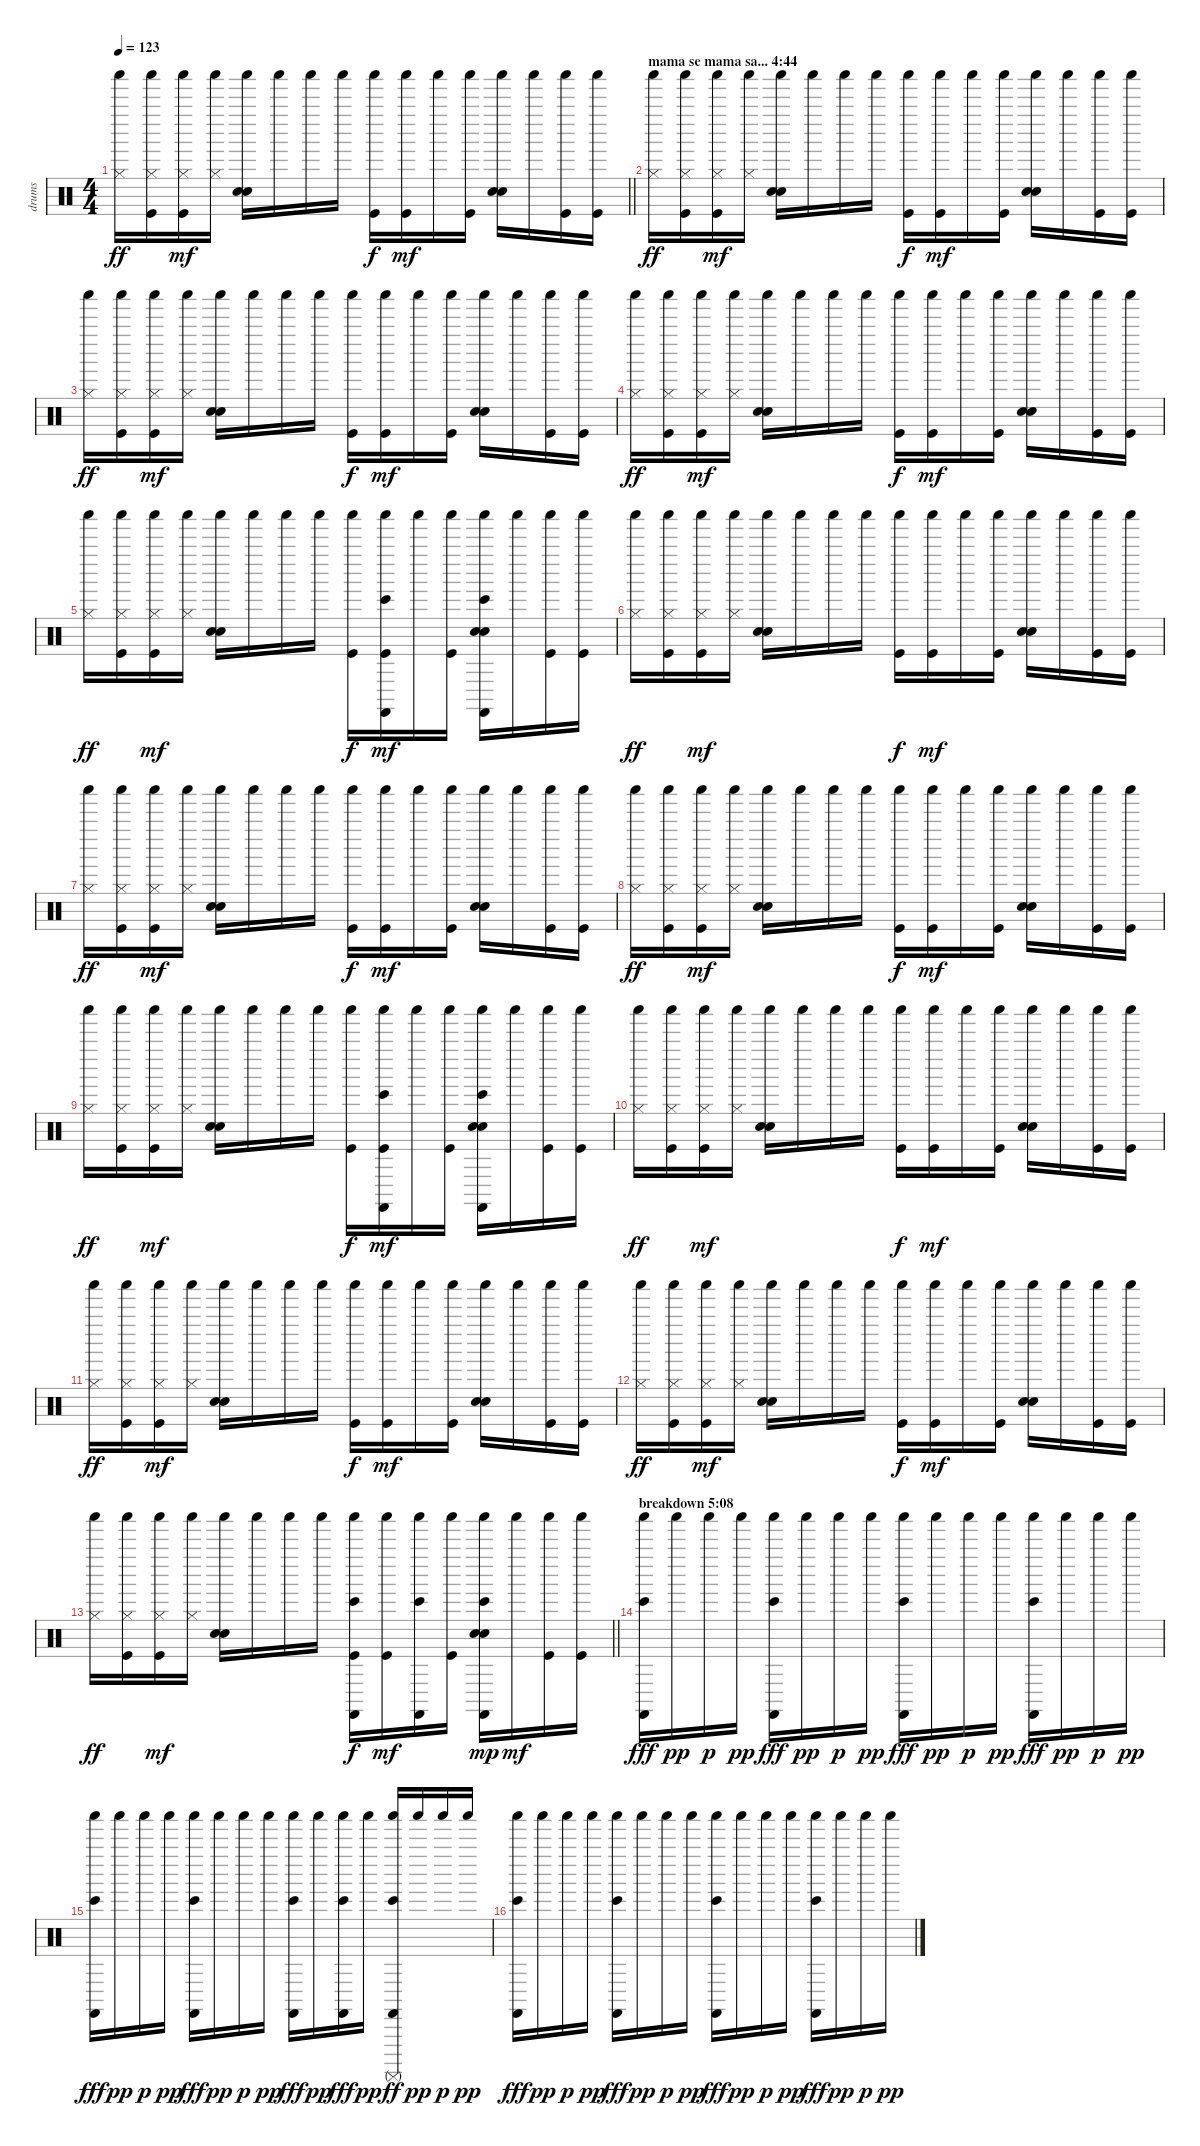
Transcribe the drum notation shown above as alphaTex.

\track ("drums" "drums") {instrument percussion}
\staff {score}
\articulation defaults
\ts (4 4)
\tempo 123
\clef neutral
\barLineRight lightlight
\ks c
("Shaker (hit)" "Hi-Hat (closed)").16{dy ff} ("Shaker (hit)" "Hi-Hat (closed)" "Kick (hit)").16 ("Shaker (hit)" "Hi-Hat (closed)" "Kick (hit)").16{dy mf} ("Shaker (hit)" "Hi-Hat (closed)").16 ("Shaker (hit)" "Electric Snare (hit)" "Hand Clap (hit)").16 "Shaker (hit)".16 "Shaker (hit)".16 "Shaker (hit)".16 ("Shaker (hit)" "Kick (hit)").16{dy f} ("Shaker (hit)" "Kick (hit)").16{dy mf} "Shaker (hit)".16 ("Shaker (hit)" "Kick (hit)").16 ("Shaker (hit)" "Electric Snare (hit)" "Hand Clap (hit)").16 "Shaker (hit)".16 ("Shaker (hit)" "Kick (hit)").16 ("Shaker (hit)" "Kick (hit)").16 |
\section ("" "mama se mama sa... 4:44")
("Shaker (hit)" "Hi-Hat (closed)").16{dy ff} ("Shaker (hit)" "Hi-Hat (closed)" "Kick (hit)").16 ("Shaker (hit)" "Hi-Hat (closed)" "Kick (hit)").16{dy mf} ("Shaker (hit)" "Hi-Hat (closed)").16 ("Shaker (hit)" "Electric Snare (hit)" "Hand Clap (hit)").16 "Shaker (hit)".16 "Shaker (hit)".16 "Shaker (hit)".16 ("Shaker (hit)" "Kick (hit)").16{dy f} ("Shaker (hit)" "Kick (hit)").16{dy mf} "Shaker (hit)".16 ("Shaker (hit)" "Kick (hit)").16 ("Shaker (hit)" "Electric Snare (hit)" "Hand Clap (hit)").16 "Shaker (hit)".16 ("Shaker (hit)" "Kick (hit)").16 ("Shaker (hit)" "Kick (hit)").16 |
("Shaker (hit)" "Hi-Hat (closed)").16{dy ff} ("Shaker (hit)" "Hi-Hat (closed)" "Kick (hit)").16 ("Shaker (hit)" "Hi-Hat (closed)" "Kick (hit)").16{dy mf} ("Shaker (hit)" "Hi-Hat (closed)").16 ("Shaker (hit)" "Electric Snare (hit)" "Hand Clap (hit)").16 "Shaker (hit)".16 "Shaker (hit)".16 "Shaker (hit)".16 ("Shaker (hit)" "Kick (hit)").16{dy f} ("Shaker (hit)" "Kick (hit)").16{dy mf} "Shaker (hit)".16 ("Shaker (hit)" "Kick (hit)").16 ("Shaker (hit)" "Electric Snare (hit)" "Hand Clap (hit)").16 "Shaker (hit)".16 ("Shaker (hit)" "Kick (hit)").16 ("Shaker (hit)" "Kick (hit)").16 |
("Shaker (hit)" "Hi-Hat (closed)").16{dy ff} ("Shaker (hit)" "Hi-Hat (closed)" "Kick (hit)").16 ("Shaker (hit)" "Hi-Hat (closed)" "Kick (hit)").16{dy mf} ("Shaker (hit)" "Hi-Hat (closed)").16 ("Shaker (hit)" "Electric Snare (hit)" "Hand Clap (hit)").16 "Shaker (hit)".16 "Shaker (hit)".16 "Shaker (hit)".16 ("Shaker (hit)" "Kick (hit)").16{dy f} ("Shaker (hit)" "Kick (hit)").16{dy mf} "Shaker (hit)".16 ("Shaker (hit)" "Kick (hit)").16 ("Shaker (hit)" "Electric Snare (hit)" "Hand Clap (hit)").16 "Shaker (hit)".16 ("Shaker (hit)" "Kick (hit)").16 ("Shaker (hit)" "Kick (hit)").16 |
("Shaker (hit)" "Hi-Hat (closed)").16{dy ff} ("Shaker (hit)" "Hi-Hat (closed)" "Kick (hit)").16 ("Shaker (hit)" "Hi-Hat (closed)" "Kick (hit)").16{dy mf} ("Shaker (hit)" "Hi-Hat (closed)").16 ("Shaker (hit)" "Electric Snare (hit)" "Hand Clap (hit)").16 "Shaker (hit)".16 "Shaker (hit)".16 "Shaker (hit)".16 ("Shaker (hit)" "Kick (hit)").16{dy f} ("Shaker (hit)" "Bongo High (hit)" "Castanets (hit)" "Kick (hit)").16{dy mf} "Shaker (hit)".16 ("Shaker (hit)" "Kick (hit)").16 ("Shaker (hit)" "Electric Snare (hit)" "Hand Clap (hit)" "Bongo High (hit)" "Castanets (hit)").16 "Shaker (hit)".16 ("Shaker (hit)" "Kick (hit)").16 ("Shaker (hit)" "Kick (hit)").16 |
("Shaker (hit)" "Hi-Hat (closed)").16{dy ff} ("Shaker (hit)" "Hi-Hat (closed)" "Kick (hit)").16 ("Shaker (hit)" "Hi-Hat (closed)" "Kick (hit)").16{dy mf} ("Shaker (hit)" "Hi-Hat (closed)").16 ("Shaker (hit)" "Electric Snare (hit)" "Hand Clap (hit)").16 "Shaker (hit)".16 "Shaker (hit)".16 "Shaker (hit)".16 ("Shaker (hit)" "Kick (hit)").16{dy f} ("Shaker (hit)" "Kick (hit)").16{dy mf} "Shaker (hit)".16 ("Shaker (hit)" "Kick (hit)").16 ("Shaker (hit)" "Electric Snare (hit)" "Hand Clap (hit)").16 "Shaker (hit)".16 ("Shaker (hit)" "Kick (hit)").16 ("Shaker (hit)" "Kick (hit)").16 |
("Shaker (hit)" "Hi-Hat (closed)").16{dy ff} ("Shaker (hit)" "Hi-Hat (closed)" "Kick (hit)").16 ("Shaker (hit)" "Hi-Hat (closed)" "Kick (hit)").16{dy mf} ("Shaker (hit)" "Hi-Hat (closed)").16 ("Shaker (hit)" "Electric Snare (hit)" "Hand Clap (hit)").16 "Shaker (hit)".16 "Shaker (hit)".16 "Shaker (hit)".16 ("Shaker (hit)" "Kick (hit)").16{dy f} ("Shaker (hit)" "Kick (hit)").16{dy mf} "Shaker (hit)".16 ("Shaker (hit)" "Kick (hit)").16 ("Shaker (hit)" "Electric Snare (hit)" "Hand Clap (hit)").16 "Shaker (hit)".16 ("Shaker (hit)" "Kick (hit)").16 ("Shaker (hit)" "Kick (hit)").16 |
("Shaker (hit)" "Hi-Hat (closed)").16{dy ff} ("Shaker (hit)" "Hi-Hat (closed)" "Kick (hit)").16 ("Shaker (hit)" "Hi-Hat (closed)" "Kick (hit)").16{dy mf} ("Shaker (hit)" "Hi-Hat (closed)").16 ("Shaker (hit)" "Electric Snare (hit)" "Hand Clap (hit)").16 "Shaker (hit)".16 "Shaker (hit)".16 "Shaker (hit)".16 ("Shaker (hit)" "Kick (hit)").16{dy f} ("Shaker (hit)" "Kick (hit)").16{dy mf} "Shaker (hit)".16 ("Shaker (hit)" "Kick (hit)").16 ("Shaker (hit)" "Electric Snare (hit)" "Hand Clap (hit)").16 "Shaker (hit)".16 ("Shaker (hit)" "Kick (hit)").16 ("Shaker (hit)" "Kick (hit)").16 |
("Shaker (hit)" "Hi-Hat (closed)").16{dy ff} ("Shaker (hit)" "Hi-Hat (closed)" "Kick (hit)").16 ("Shaker (hit)" "Hi-Hat (closed)" "Kick (hit)").16{dy mf} ("Shaker (hit)" "Hi-Hat (closed)").16 ("Shaker (hit)" "Electric Snare (hit)" "Hand Clap (hit)").16 "Shaker (hit)".16 "Shaker (hit)".16 "Shaker (hit)".16 ("Shaker (hit)" "Kick (hit)").16{dy f} ("Shaker (hit)" "Bongo High (hit)" "Castanets (hit)" "Kick (hit)").16{dy mf} "Shaker (hit)".16 ("Shaker (hit)" "Kick (hit)").16 ("Shaker (hit)" "Electric Snare (hit)" "Hand Clap (hit)" "Bongo High (hit)" "Castanets (hit)").16 "Shaker (hit)".16 ("Shaker (hit)" "Kick (hit)").16 ("Shaker (hit)" "Kick (hit)").16 |
("Shaker (hit)" "Hi-Hat (closed)").16{dy ff} ("Shaker (hit)" "Hi-Hat (closed)" "Kick (hit)").16 ("Shaker (hit)" "Hi-Hat (closed)" "Kick (hit)").16{dy mf} ("Shaker (hit)" "Hi-Hat (closed)").16 ("Shaker (hit)" "Electric Snare (hit)" "Hand Clap (hit)").16 "Shaker (hit)".16 "Shaker (hit)".16 "Shaker (hit)".16 ("Shaker (hit)" "Kick (hit)").16{dy f} ("Shaker (hit)" "Kick (hit)").16{dy mf} "Shaker (hit)".16 ("Shaker (hit)" "Kick (hit)").16 ("Shaker (hit)" "Electric Snare (hit)" "Hand Clap (hit)").16 "Shaker (hit)".16 ("Shaker (hit)" "Kick (hit)").16 ("Shaker (hit)" "Kick (hit)").16 |
("Shaker (hit)" "Hi-Hat (closed)").16{dy ff} ("Shaker (hit)" "Hi-Hat (closed)" "Kick (hit)").16 ("Shaker (hit)" "Hi-Hat (closed)" "Kick (hit)").16{dy mf} ("Shaker (hit)" "Hi-Hat (closed)").16 ("Shaker (hit)" "Electric Snare (hit)" "Hand Clap (hit)").16 "Shaker (hit)".16 "Shaker (hit)".16 "Shaker (hit)".16 ("Shaker (hit)" "Kick (hit)").16{dy f} ("Shaker (hit)" "Kick (hit)").16{dy mf} "Shaker (hit)".16 ("Shaker (hit)" "Kick (hit)").16 ("Shaker (hit)" "Electric Snare (hit)" "Hand Clap (hit)").16 "Shaker (hit)".16 ("Shaker (hit)" "Kick (hit)").16 ("Shaker (hit)" "Kick (hit)").16 |
("Shaker (hit)" "Hi-Hat (closed)").16{dy ff} ("Shaker (hit)" "Hi-Hat (closed)" "Kick (hit)").16 ("Shaker (hit)" "Hi-Hat (closed)" "Kick (hit)").16{dy mf} ("Shaker (hit)" "Hi-Hat (closed)").16 ("Shaker (hit)" "Electric Snare (hit)" "Hand Clap (hit)").16 "Shaker (hit)".16 "Shaker (hit)".16 "Shaker (hit)".16 ("Shaker (hit)" "Kick (hit)").16{dy f} ("Shaker (hit)" "Kick (hit)").16{dy mf} "Shaker (hit)".16 ("Shaker (hit)" "Kick (hit)").16 ("Shaker (hit)" "Electric Snare (hit)" "Hand Clap (hit)").16 "Shaker (hit)".16 ("Shaker (hit)" "Kick (hit)").16 ("Shaker (hit)" "Kick (hit)").16 |
\barLineRight lightlight
("Shaker (hit)" "Hi-Hat (closed)").16{dy ff} ("Shaker (hit)" "Hi-Hat (closed)" "Kick (hit)").16 ("Shaker (hit)" "Hi-Hat (closed)" "Kick (hit)").16{dy mf} ("Shaker (hit)" "Hi-Hat (closed)").16 ("Shaker (hit)" "Electric Snare (hit)" "Hand Clap (hit)").16 "Shaker (hit)".16 "Shaker (hit)".16 "Shaker (hit)".16 ("Shaker (hit)" "Bongo High (hit)" "Castanets (hit)" "Kick (hit)").16{dy f} ("Shaker (hit)" "Kick (hit)").16{dy mf} ("Shaker (hit)" "Bongo High (hit)" "Castanets (hit)").16 ("Shaker (hit)" "Kick (hit)").16 ("Shaker (hit)" "Electric Snare (hit)" "Hand Clap (hit)" "Bongo High (hit)" "Castanets (hit)").16{dy mp} "Shaker (hit)".16{dy mf} ("Shaker (hit)" "Kick (hit)").16 ("Shaker (hit)" "Kick (hit)").16 |
\section ("" "breakdown 5:08")
("Bongo High (hit)" "Castanets (hit)" "Shaker (hit)").16{dy fff} "Shaker (hit)".16{dy pp} "Shaker (hit)".16{dy p} "Shaker (hit)".16{dy pp} ("Bongo High (hit)" "Castanets (hit)" "Shaker (hit)").16{dy fff} "Shaker (hit)".16{dy pp} "Shaker (hit)".16{dy p} "Shaker (hit)".16{dy pp} ("Bongo High (hit)" "Castanets (hit)" "Shaker (hit)").16{dy fff} "Shaker (hit)".16{dy pp} "Shaker (hit)".16{dy p} "Shaker (hit)".16{dy pp} ("Bongo High (hit)" "Castanets (hit)" "Shaker (hit)").16{dy fff} "Shaker (hit)".16{dy pp} "Shaker (hit)".16{dy p} "Shaker (hit)".16{dy pp} |
("Bongo High (hit)" "Castanets (hit)" "Shaker (hit)").16{dy fff} "Shaker (hit)".16{dy pp} "Shaker (hit)".16{dy p} "Shaker (hit)".16{dy pp} ("Bongo High (hit)" "Castanets (hit)" "Shaker (hit)").16{dy fff} "Shaker (hit)".16{dy pp} "Shaker (hit)".16{dy p} "Shaker (hit)".16{dy pp} ("Bongo High (hit)" "Castanets (hit)" "Shaker (hit)").16{dy fff} "Shaker (hit)".16{dy pp} ("Bongo High (hit)" "Castanets (hit)" "Shaker (hit)").16{dy fff} "Shaker (hit)".16{dy pp} ("Bongo High (hit)" "Castanets (hit)" "Shaker (hit)" "Surdo (mute)").16{dy ff} "Shaker (hit)".16{dy pp} "Shaker (hit)".16{dy p} "Shaker (hit)".16{dy pp} |
("Bongo High (hit)" "Castanets (hit)" "Shaker (hit)").16{dy fff} "Shaker (hit)".16{dy pp} "Shaker (hit)".16{dy p} "Shaker (hit)".16{dy pp} ("Bongo High (hit)" "Castanets (hit)" "Shaker (hit)").16{dy fff} "Shaker (hit)".16{dy pp} "Shaker (hit)".16{dy p} "Shaker (hit)".16{dy pp} ("Bongo High (hit)" "Castanets (hit)" "Shaker (hit)").16{dy fff} "Shaker (hit)".16{dy pp} "Shaker (hit)".16{dy p} "Shaker (hit)".16{dy pp} ("Bongo High (hit)" "Castanets (hit)" "Shaker (hit)").16{dy fff} "Shaker (hit)".16{dy pp} "Shaker (hit)".16{dy p} "Shaker (hit)".16{dy pp}
